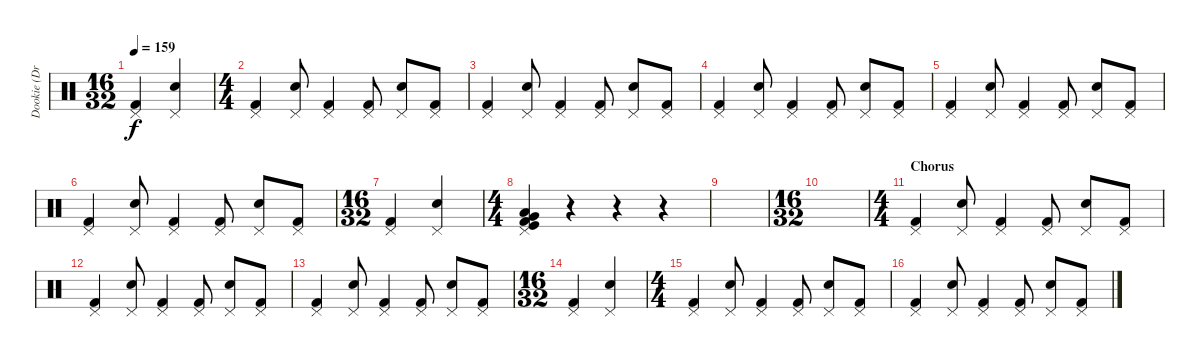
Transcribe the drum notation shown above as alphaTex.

\track ("Dookie (Drums)" "Dookie (Dr") {instrument percussion}
\staff {score}
\articulation defaults
\ts (16 32)
\tempo 159
\clef neutral
\ks c
("Kick (hit) 2" "Pedal Hi-Hat (hit)").4{dy f} ("Electric Snare (hit)" "Pedal Hi-Hat (hit)").4 |
\ts (4 4)
("Kick (hit) 2" "Pedal Hi-Hat (hit)").4 ("Electric Snare (hit)" "Pedal Hi-Hat (hit)").8 ("Kick (hit) 2" "Pedal Hi-Hat (hit)").4 ("Kick (hit) 2" "Pedal Hi-Hat (hit)").8 ("Electric Snare (hit)" "Pedal Hi-Hat (hit)").8 ("Kick (hit) 2" "Pedal Hi-Hat (hit)").8 |
("Kick (hit) 2" "Pedal Hi-Hat (hit)").4 ("Electric Snare (hit)" "Pedal Hi-Hat (hit)").8 ("Kick (hit) 2" "Pedal Hi-Hat (hit)").4 ("Kick (hit) 2" "Pedal Hi-Hat (hit)").8 ("Electric Snare (hit)" "Pedal Hi-Hat (hit)").8 ("Kick (hit) 2" "Pedal Hi-Hat (hit)").8 |
("Kick (hit) 2" "Pedal Hi-Hat (hit)").4 ("Electric Snare (hit)" "Pedal Hi-Hat (hit)").8 ("Kick (hit) 2" "Pedal Hi-Hat (hit)").4 ("Kick (hit) 2" "Pedal Hi-Hat (hit)").8 ("Electric Snare (hit)" "Pedal Hi-Hat (hit)").8 ("Kick (hit) 2" "Pedal Hi-Hat (hit)").8 |
("Kick (hit) 2" "Pedal Hi-Hat (hit)").4 ("Electric Snare (hit)" "Pedal Hi-Hat (hit)").8 ("Kick (hit) 2" "Pedal Hi-Hat (hit)").4 ("Kick (hit) 2" "Pedal Hi-Hat (hit)").8 ("Electric Snare (hit)" "Pedal Hi-Hat (hit)").8 ("Kick (hit) 2" "Pedal Hi-Hat (hit)").8 |
("Kick (hit) 2" "Pedal Hi-Hat (hit)").4 ("Electric Snare (hit)" "Pedal Hi-Hat (hit)").8 ("Kick (hit) 2" "Pedal Hi-Hat (hit)").4 ("Kick (hit) 2" "Pedal Hi-Hat (hit)").8 ("Electric Snare (hit)" "Pedal Hi-Hat (hit)").8 ("Kick (hit) 2" "Pedal Hi-Hat (hit)").8 |
\ts (16 32)
("Kick (hit) 2" "Pedal Hi-Hat (hit)").4 ("Electric Snare (hit)" "Pedal Hi-Hat (hit)").4 |
\ts (4 4)
("Very Low Tom (hit)" "Kick (hit)" "Kick (hit) 2" "Low Floor Tom (hit)" "Pedal Hi-Hat (hit)").4 r.4 r.4 r.4 |
|
\ts (16 32)
|
\ts (4 4)
\section ("" "Chorus")
("Kick (hit) 2" "Pedal Hi-Hat (hit)").4 ("Electric Snare (hit)" "Pedal Hi-Hat (hit)").8 ("Kick (hit) 2" "Pedal Hi-Hat (hit)").4 ("Kick (hit) 2" "Pedal Hi-Hat (hit)").8 ("Electric Snare (hit)" "Pedal Hi-Hat (hit)").8 ("Kick (hit) 2" "Pedal Hi-Hat (hit)").8 |
("Kick (hit) 2" "Pedal Hi-Hat (hit)").4 ("Electric Snare (hit)" "Pedal Hi-Hat (hit)").8 ("Kick (hit) 2" "Pedal Hi-Hat (hit)").4 ("Kick (hit) 2" "Pedal Hi-Hat (hit)").8 ("Electric Snare (hit)" "Pedal Hi-Hat (hit)").8 ("Kick (hit) 2" "Pedal Hi-Hat (hit)").8 |
("Kick (hit) 2" "Pedal Hi-Hat (hit)").4 ("Electric Snare (hit)" "Pedal Hi-Hat (hit)").8 ("Kick (hit) 2" "Pedal Hi-Hat (hit)").4 ("Kick (hit) 2" "Pedal Hi-Hat (hit)").8 ("Electric Snare (hit)" "Pedal Hi-Hat (hit)").8 ("Kick (hit) 2" "Pedal Hi-Hat (hit)").8 |
\ts (16 32)
("Kick (hit) 2" "Pedal Hi-Hat (hit)").4 ("Electric Snare (hit)" "Pedal Hi-Hat (hit)").4 |
\ts (4 4)
("Kick (hit) 2" "Pedal Hi-Hat (hit)").4 ("Electric Snare (hit)" "Pedal Hi-Hat (hit)").8 ("Kick (hit) 2" "Pedal Hi-Hat (hit)").4 ("Kick (hit) 2" "Pedal Hi-Hat (hit)").8 ("Electric Snare (hit)" "Pedal Hi-Hat (hit)").8 ("Kick (hit) 2" "Pedal Hi-Hat (hit)").8 |
("Kick (hit) 2" "Pedal Hi-Hat (hit)").4 ("Electric Snare (hit)" "Pedal Hi-Hat (hit)").8 ("Kick (hit) 2" "Pedal Hi-Hat (hit)").4 ("Kick (hit) 2" "Pedal Hi-Hat (hit)").8 ("Electric Snare (hit)" "Pedal Hi-Hat (hit)").8 ("Kick (hit) 2" "Pedal Hi-Hat (hit)").8
